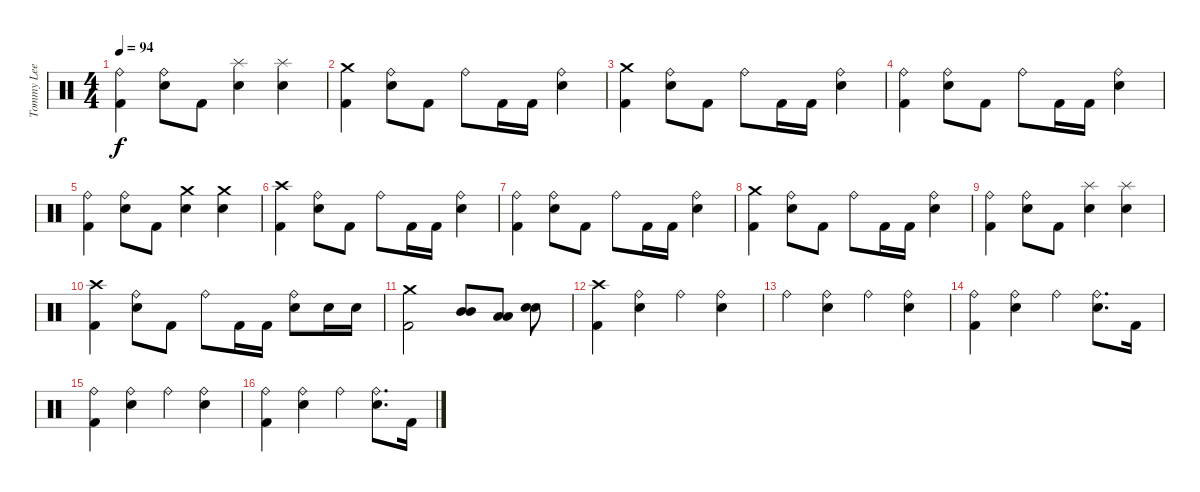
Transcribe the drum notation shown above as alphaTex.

\track ("Tommy Lee" "Tommy Lee") {instrument percussion}
\staff {score}
\articulation defaults
\ts (4 4)
\tempo 94
\clef neutral
\ks c
("Ride (bell)" "Kick (hit) 2").4{dy f} ("Ride (bell)" "Snare (hit) 2").8 "Kick (hit) 2".8 ("Splash (hit)" "Snare (hit) 2").4 ("Splash (hit)" "Snare (hit) 2").4 |
("Crash medium (hit)" "Kick (hit) 2").4 ("Ride (bell)" "Snare (hit) 2").8 "Kick (hit) 2".8 "Ride (bell)".8 "Kick (hit) 2".16 "Kick (hit) 2".16 ("Ride (bell)" "Snare (hit) 2").4 |
("Crash medium (hit)" "Kick (hit) 2").4 ("Ride (bell)" "Snare (hit) 2").8 "Kick (hit) 2".8 "Ride (bell)".8 "Kick (hit) 2".16 "Kick (hit) 2".16 ("Ride (bell)" "Snare (hit) 2").4 |
("Ride (bell)" "Kick (hit) 2").4 ("Ride (bell)" "Snare (hit) 2").8 "Kick (hit) 2".8 "Ride (bell)".8 "Kick (hit) 2".16 "Kick (hit) 2".16 ("Ride (bell)" "Snare (hit) 2").4 |
("Ride (bell)" "Kick (hit) 2").4 ("Ride (bell)" "Snare (hit) 2").8 "Kick (hit) 2".8 ("Crash medium (hit)" "Snare (hit) 2").4 ("Crash medium (hit)" "Snare (hit) 2").4 |
("Crash high (hit)" "Kick (hit) 2").4 ("Ride (bell)" "Snare (hit) 2").8 "Kick (hit) 2".8 "Ride (bell)".8 "Kick (hit) 2".16 "Kick (hit) 2".16 ("Ride (bell)" "Snare (hit) 2").4 |
("Ride (bell)" "Kick (hit) 2").4 ("Ride (bell)" "Snare (hit) 2").8 "Kick (hit) 2".8 "Ride (bell)".8 "Kick (hit) 2".16 "Kick (hit) 2".16 ("Ride (bell)" "Snare (hit) 2").4 |
("Crash medium (hit)" "Kick (hit) 2").4 ("Ride (bell)" "Snare (hit) 2").8 "Kick (hit) 2".8 "Ride (bell)".8 "Kick (hit) 2".16 "Kick (hit) 2".16 ("Ride (bell)" "Snare (hit) 2").4 |
("Ride (bell)" "Kick (hit) 2").4 ("Ride (bell)" "Snare (hit) 2").8 "Kick (hit) 2".8 ("Splash (hit)" "Snare (hit) 2").4 ("Splash (hit)" "Snare (hit) 2").4 |
("Crash high (hit)" "Kick (hit) 2").4 ("Ride (bell)" "Snare (hit) 2").8 "Kick (hit) 2".8 "Ride (bell)".8 "Kick (hit) 2".16 "Kick (hit) 2".16 ("Ride (bell)" "Snare (hit) 2").8 "Snare (hit) 2".16 "Snare (hit) 2".16 |
("Crash medium (hit)" "Kick (hit) 2").2 ("Mid Tom (hit)" "Mid Tom (hit)").8{bu 120} ("Low Tom (hit)" "Low Tom (hit)").8{bd 120} ("Snare (hit) 2" "Snare (hit) 2").8{bd 120} |
("Crash high (hit)" "Kick (hit) 2").4 ("Ride (bell)" "Snare (hit) 2").4 "Ride (bell)".4 ("Ride (bell)" "Snare (hit) 2").4 |
"Ride (bell)".4 ("Ride (bell)" "Snare (hit) 2").4 "Ride (bell)".4 ("Ride (bell)" "Snare (hit) 2").4 |
("Ride (bell)" "Kick (hit) 2").4 ("Ride (bell)" "Snare (hit) 2").4 "Ride (bell)".4 ("Ride (bell)" "Snare (hit) 2").8{d} "Kick (hit) 2".16 |
("Ride (bell)" "Kick (hit) 2").4 ("Ride (bell)" "Snare (hit) 2").4 "Ride (bell)".4 ("Ride (bell)" "Snare (hit) 2").4 |
("Ride (bell)" "Kick (hit) 2").4 ("Ride (bell)" "Snare (hit) 2").4 "Ride (bell)".4 ("Ride (bell)" "Snare (hit) 2").8{d} "Kick (hit) 2".16
